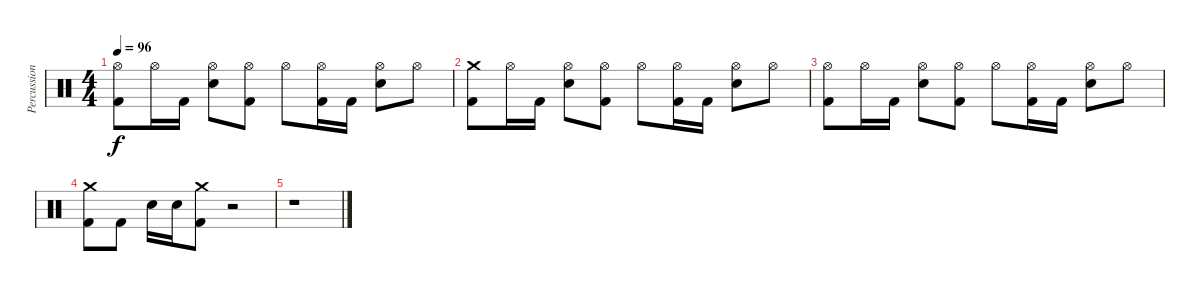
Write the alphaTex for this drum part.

\track ("Percussion" "Percussion") {instrument percussion}
\staff {score}
\articulation defaults
\ts (4 4)
\tempo 96
\clef neutral
\ks c
("Hi-Hat (open)" "Kick (hit) 2").8{dy f} "Hi-Hat (open)".16 "Kick (hit) 2".16 ("Hi-Hat (open)" "Electric Snare (hit)").8 ("Hi-Hat (open)" "Kick (hit) 2").8 "Hi-Hat (open)".8 ("Hi-Hat (open)" "Kick (hit) 2").16 "Kick (hit) 2".16 ("Hi-Hat (open)" "Electric Snare (hit)").8 "Hi-Hat (open)".8 |
("Crash medium (hit)" "Kick (hit) 2").8 "Hi-Hat (open)".16 "Kick (hit) 2".16 ("Hi-Hat (open)" "Electric Snare (hit)").8 ("Hi-Hat (open)" "Kick (hit) 2").8 "Hi-Hat (open)".8 ("Hi-Hat (open)" "Kick (hit) 2").16 "Kick (hit) 2".16 ("Hi-Hat (open)" "Electric Snare (hit)").8 "Hi-Hat (open)".8 |
("Hi-Hat (open)" "Kick (hit) 2").8 "Hi-Hat (open)".16 "Kick (hit) 2".16 ("Hi-Hat (open)" "Electric Snare (hit)").8 ("Hi-Hat (open)" "Kick (hit) 2").8 "Hi-Hat (open)".8 ("Hi-Hat (open)" "Kick (hit) 2").16 "Kick (hit) 2".16 ("Hi-Hat (open)" "Electric Snare (hit)").8 "Hi-Hat (open)".8 |
("Crash medium (hit)" "Kick (hit) 2").8 "Kick (hit) 2".8 "Electric Snare (hit)".16 "Electric Snare (hit)".16 ("Crash medium (hit)" "Kick (hit) 2").8 r.2 |
r.1
